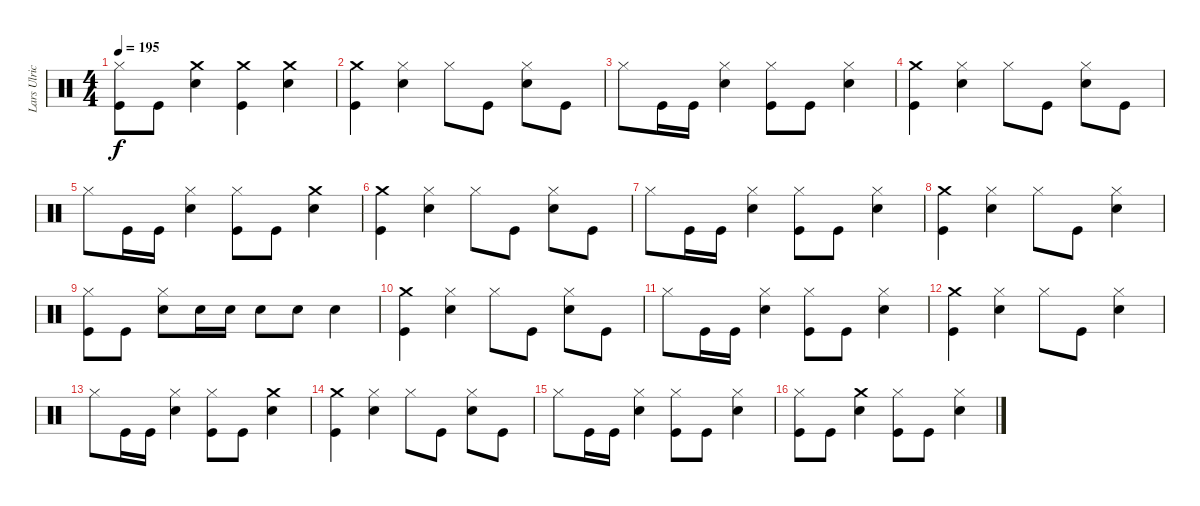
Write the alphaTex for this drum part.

\track ("Lars Ulrich (Drums)" "Lars Ulric") {instrument percussion}
\staff {score}
\articulation defaults
\ts (4 4)
\tempo 195
\clef neutral
\ks c
("Kick (hit)" "Hi-Hat (closed)").8{dy f} "Kick (hit)".8 ("Crash medium (hit)" "Snare (hit) 2").4 ("Kick (hit)" "Crash medium (hit)").4 ("Snare (hit) 2" "Crash medium (hit)").4 |
("Kick (hit)" "Crash medium (hit)").4 ("Snare (hit) 2" "Hi-Hat (closed)").4 "Hi-Hat (closed)".8 "Kick (hit)".8 ("Snare (hit) 2" "Hi-Hat (closed)").8 "Kick (hit)".8 |
"Hi-Hat (closed)".8 "Kick (hit)".16 "Kick (hit)".16 ("Snare (hit) 2" "Hi-Hat (closed)").4 ("Kick (hit)" "Hi-Hat (closed)").8 "Kick (hit)".8 ("Snare (hit) 2" "Hi-Hat (closed)").4 |
("Kick (hit)" "Crash medium (hit)").4 ("Hi-Hat (closed)" "Snare (hit) 2").4 "Hi-Hat (closed)".8 "Kick (hit)".8 ("Snare (hit) 2" "Hi-Hat (closed)").8 "Kick (hit)".8 |
"Hi-Hat (closed)".8 "Kick (hit)".16 "Kick (hit)".16 ("Snare (hit) 2" "Hi-Hat (closed)").4 ("Kick (hit)" "Hi-Hat (closed)").8 "Kick (hit)".8 ("Crash medium (hit)" "Snare (hit) 2").4 |
("Kick (hit)" "Crash medium (hit)").4 ("Hi-Hat (closed)" "Snare (hit) 2").4 "Hi-Hat (closed)".8 "Kick (hit)".8 ("Snare (hit) 2" "Hi-Hat (closed)").8 "Kick (hit)".8 |
"Hi-Hat (closed)".8 "Kick (hit)".16 "Kick (hit)".16 ("Snare (hit) 2" "Hi-Hat (closed)").4 ("Kick (hit)" "Hi-Hat (closed)").8 "Kick (hit)".8 ("Snare (hit) 2" "Hi-Hat (closed)").4 |
("Kick (hit)" "Crash medium (hit)").4 ("Hi-Hat (closed)" "Snare (hit) 2").4 "Hi-Hat (closed)".8 "Kick (hit)".8 ("Snare (hit) 2" "Hi-Hat (closed)").4 |
("Kick (hit)" "Hi-Hat (closed)").8 "Kick (hit)".8 ("Snare (hit) 2" "Hi-Hat (closed)").8 "Snare (hit) 2".16 "Snare (hit) 2".16 "Snare (hit) 2".8 "Snare (hit) 2".8 "Snare (hit) 2".4 |
("Kick (hit)" "Crash medium (hit)").4 ("Hi-Hat (closed)" "Snare (hit) 2").4 "Hi-Hat (closed)".8 "Kick (hit)".8 ("Snare (hit) 2" "Hi-Hat (closed)").8 "Kick (hit)".8 |
"Hi-Hat (closed)".8 "Kick (hit)".16 "Kick (hit)".16 ("Snare (hit) 2" "Hi-Hat (closed)").4 ("Kick (hit)" "Hi-Hat (closed)").8 "Kick (hit)".8 ("Snare (hit) 2" "Hi-Hat (closed)").4 |
("Kick (hit)" "Crash medium (hit)").4 ("Hi-Hat (closed)" "Snare (hit) 2").4 "Hi-Hat (closed)".8 "Kick (hit)".8 ("Snare (hit) 2" "Hi-Hat (closed)").4 |
"Hi-Hat (closed)".8 "Kick (hit)".16 "Kick (hit)".16 ("Snare (hit) 2" "Hi-Hat (closed)").4 ("Kick (hit)" "Hi-Hat (closed)").8 "Kick (hit)".8 ("Crash medium (hit)" "Snare (hit) 2").4 |
("Kick (hit)" "Crash medium (hit)").4 ("Hi-Hat (closed)" "Snare (hit) 2").4 "Hi-Hat (closed)".8 "Kick (hit)".8 ("Snare (hit) 2" "Hi-Hat (closed)").8 "Kick (hit)".8 |
"Hi-Hat (closed)".8 "Kick (hit)".16 "Kick (hit)".16 ("Snare (hit) 2" "Hi-Hat (closed)").4 ("Kick (hit)" "Hi-Hat (closed)").8 "Kick (hit)".8 ("Snare (hit) 2" "Hi-Hat (closed)").4 |
("Kick (hit)" "Hi-Hat (closed)").8 "Kick (hit)".8 ("Snare (hit) 2" "Crash medium (hit)").4 ("Kick (hit)" "Hi-Hat (closed)").8 "Kick (hit)".8 ("Snare (hit) 2" "Hi-Hat (closed)").4
